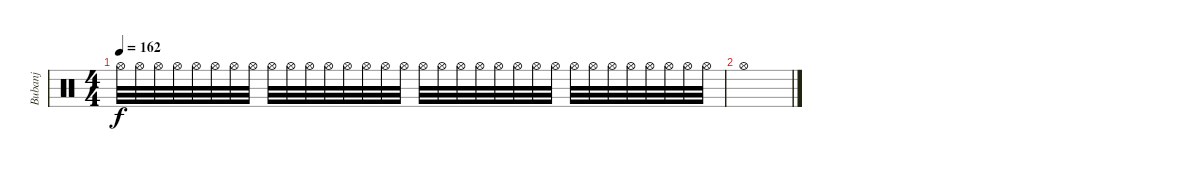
\track ("Bubanj" "Bubanj") {instrument percussion}
\staff {score}
\articulation defaults
\ts (4 4)
\tempo 162
\clef neutral
\ks c "Hi-Hat (open)".32{dy f} "Hi-Hat (open)".32 "Hi-Hat (open)".32 "Hi-Hat (open)".32 "Hi-Hat (open)".32 "Hi-Hat (open)".32 "Hi-Hat (open)".32 "Hi-Hat (open)".32 "Hi-Hat (open)".32 "Hi-Hat (open)".32 "Hi-Hat (open)".32 "Hi-Hat (open)".32 "Hi-Hat (open)".32 "Hi-Hat (open)".32 "Hi-Hat (open)".32 "Hi-Hat (open)".32 "Hi-Hat (open)".32 "Hi-Hat (open)".32 "Hi-Hat (open)".32 "Hi-Hat (open)".32 "Hi-Hat (open)".32 "Hi-Hat (open)".32 "Hi-Hat (open)".32 "Hi-Hat (open)".32 "Hi-Hat (open)".32 "Hi-Hat (open)".32 "Hi-Hat (open)".32 "Hi-Hat (open)".32 "Hi-Hat (open)".32 "Hi-Hat (open)".32 "Hi-Hat (open)".32 "Hi-Hat (open)".32
|
"Hi-Hat (open)".1
